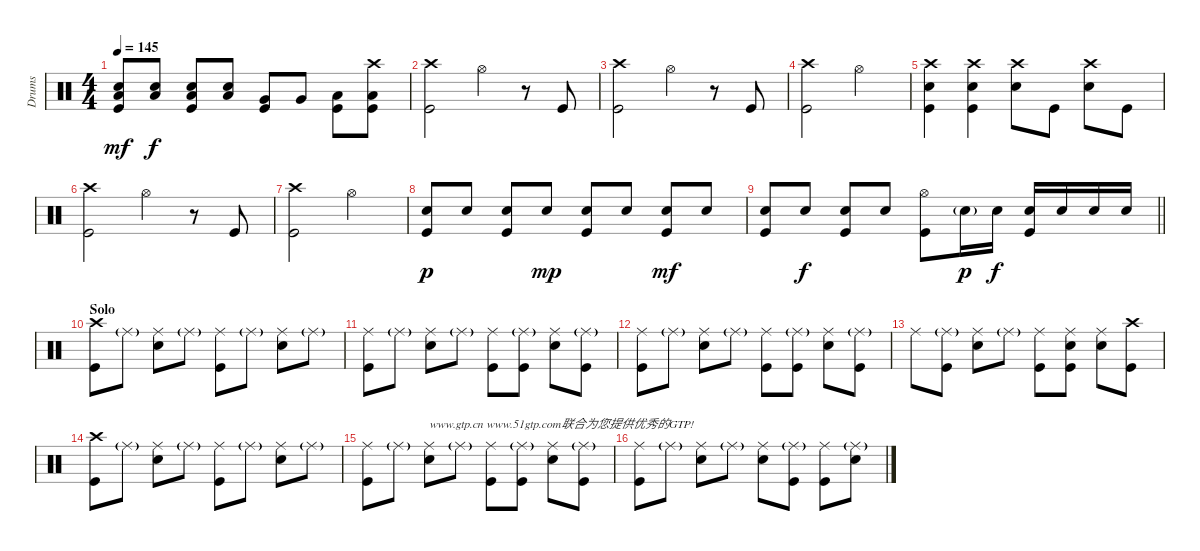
\track ("Drums" "Drums") {instrument percussion}
\staff {score}
\articulation defaults
\ts (4 4)
\tempo 145
\clef neutral
\ks c
("Snare (hit) 2" "Low Floor Tom (hit)" "Kick (hit)").8{dy mf} ("Snare (hit) 2" "Low Floor Tom (hit)").8{dy f} ("Snare (hit) 2" "Low Floor Tom (hit)" "Kick (hit)").8 ("Snare (hit) 2" "Low Floor Tom (hit)").8 ("Very Low Tom (hit)" "Kick (hit)").8 "Very Low Tom (hit)".8 ("Low Floor Tom (hit)" "Kick (hit)").8 ("Crash high (hit)" "Low Floor Tom (hit)" "Kick (hit)").8 |
("Crash high (hit)" "Kick (hit)").2 "Hi-Hat (open)".4 r.8 "Kick (hit)".8 |
("Crash high (hit)" "Kick (hit)").2 "Hi-Hat (open)".4 r.8 "Kick (hit)".8 |
("Crash high (hit)" "Kick (hit)").2 "Hi-Hat (open)".2 |
("Crash high (hit)" "Snare (hit) 2" "Kick (hit)").4 ("Crash high (hit)" "Snare (hit) 2" "Kick (hit)").4 ("Crash high (hit)" "Snare (hit) 2").8 "Kick (hit)".8 ("Crash high (hit)" "Snare (hit) 2").8 "Kick (hit)".8 |
("Crash high (hit)" "Kick (hit)").2 "Hi-Hat (open)".4 r.8 "Kick (hit)".8 |
("Crash high (hit)" "Kick (hit)").2 "Hi-Hat (open)".2 |
("Snare (hit) 2" "Kick (hit)").8{dy p} "Snare (hit) 2".8 ("Snare (hit) 2" "Kick (hit)").8 "Snare (hit) 2".8{dy mp} ("Snare (hit) 2" "Kick (hit)").8 "Snare (hit) 2".8 ("Snare (hit) 2" "Kick (hit)").8{dy mf} "Snare (hit) 2".8 |
\barLineRight lightlight
("Snare (hit) 2" "Kick (hit)").8 "Snare (hit) 2".8{dy f} ("Snare (hit) 2" "Kick (hit)").8 "Snare (hit) 2".8 ("Hi-Hat (open)" "Kick (hit)").8 "Snare (hit) 2"{g}.16{dy p} "Snare (hit) 2".16{dy f} ("Snare (hit) 2" "Kick (hit)").16 "Snare (hit) 2".16 "Snare (hit) 2".16 "Snare (hit) 2".16 |
\section ("" "Solo")
("Crash high (hit)" "Kick (hit)").8 "Ride (middle)"{g}.8 ("Ride (middle)" "Snare (hit) 2").8 "Ride (middle)"{g}.8 ("Ride (middle)" "Kick (hit)").8 "Ride (middle)"{g}.8 ("Ride (middle)" "Snare (hit) 2").8 "Ride (middle)"{g}.8 |
("Ride (middle)" "Kick (hit)").8 "Ride (middle)"{g}.8 ("Ride (middle)" "Snare (hit) 2").8 "Ride (middle)"{g}.8 ("Ride (middle)" "Kick (hit)").8 ("Ride (middle)"{g} "Kick (hit)").8 ("Ride (middle)" "Snare (hit) 2").8 ("Ride (middle)"{g} "Kick (hit)").8 |
("Ride (middle)" "Kick (hit)").8 "Ride (middle)"{g}.8 ("Ride (middle)" "Snare (hit) 2").8 "Ride (middle)"{g}.8 ("Ride (middle)" "Kick (hit)").8 ("Ride (middle)"{g} "Kick (hit)").8 ("Ride (middle)" "Snare (hit) 2").8 ("Ride (middle)"{g} "Kick (hit)").8 |
"Ride (middle)".8 ("Ride (middle)"{g} "Kick (hit)").8 ("Ride (middle)" "Snare (hit) 2").8 "Ride (middle)"{g}.8 ("Ride (middle)" "Kick (hit)").8 ("Ride (middle)" "Snare (hit) 2" "Kick (hit)").8 ("Ride (middle)" "Snare (hit) 2").8 ("Crash high (hit)" "Kick (hit)").8 |
("Crash high (hit)" "Kick (hit)").8 "Ride (middle)"{g}.8 ("Ride (middle)" "Snare (hit) 2").8 "Ride (middle)"{g}.8 ("Ride (middle)" "Kick (hit)").8 "Ride (middle)"{g}.8 ("Ride (middle)" "Snare (hit) 2").8 "Ride (middle)"{g}.8 |
("Ride (middle)" "Kick (hit)").8 "Ride (middle)"{g}.8 ("Ride (middle)" "Snare (hit) 2").8{txt "www.gtp.cn www.51gtp.com联合为您提供优秀的GTP!"} "Ride (middle)"{g}.8 ("Ride (middle)" "Kick (hit)").8 ("Ride (middle)"{g} "Kick (hit)").8 ("Ride (middle)" "Snare (hit) 2").8 ("Ride (middle)"{g} "Kick (hit)").8 |
("Ride (middle)" "Kick (hit)").8 "Ride (middle)"{g}.8 ("Ride (middle)" "Snare (hit) 2").8 "Ride (middle)"{g}.8 ("Ride (middle)" "Snare (hit) 2").8 ("Ride (middle)"{g} "Kick (hit)").8 ("Ride (middle)" "Kick (hit)").8 ("Ride (middle)"{g} "Snare (hit) 2").8
